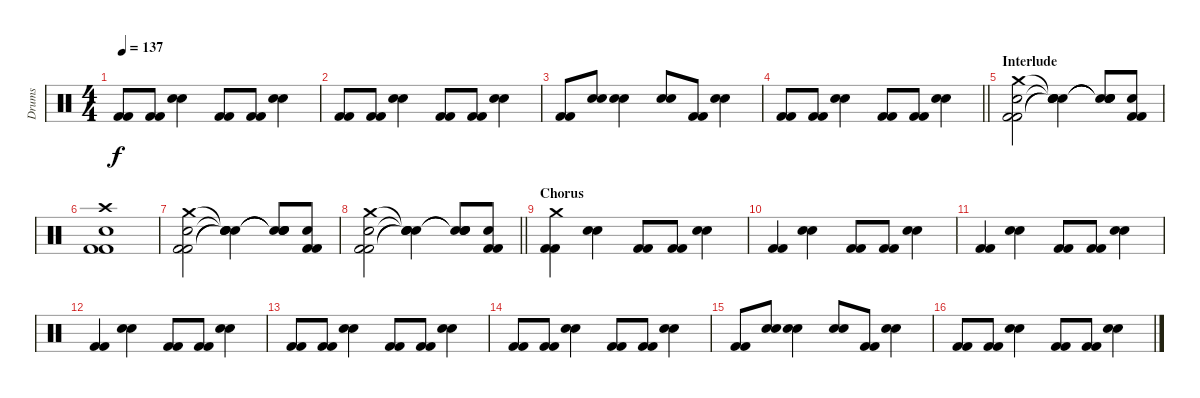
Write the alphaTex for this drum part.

\track ("Drums" "Drums") {instrument percussion}
\staff {score}
\articulation defaults
\ts (4 4)
\tempo 137
\clef neutral
\ks c
("Kick (hit) 2" "Kick (hit) 2").8{dy f} ("Kick (hit) 2" "Kick (hit) 2").8 ("Electric Snare (hit)" "Electric Snare (hit)").4 ("Kick (hit) 2" "Kick (hit) 2").8 ("Kick (hit) 2" "Kick (hit) 2").8 ("Electric Snare (hit)" "Electric Snare (hit)").4 |
("Kick (hit) 2" "Kick (hit) 2").8 ("Kick (hit) 2" "Kick (hit) 2").8 ("Electric Snare (hit)" "Electric Snare (hit)").4 ("Kick (hit) 2" "Kick (hit) 2").8 ("Kick (hit) 2" "Kick (hit) 2").8 ("Electric Snare (hit)" "Electric Snare (hit)").4 |
("Kick (hit) 2" "Kick (hit) 2").8 ("Electric Snare (hit)" "Electric Snare (hit)").8 ("Electric Snare (hit)" "Electric Snare (hit)").4 ("Electric Snare (hit)" "Electric Snare (hit)").8 ("Kick (hit) 2" "Kick (hit) 2").8 ("Electric Snare (hit)" "Electric Snare (hit)").4 |
\barLineRight lightlight
("Kick (hit) 2" "Kick (hit) 2").8 ("Kick (hit) 2" "Kick (hit) 2").8 ("Electric Snare (hit)" "Electric Snare (hit)").4 ("Kick (hit) 2" "Kick (hit) 2").8 ("Kick (hit) 2" "Kick (hit) 2").8 ("Electric Snare (hit)" "Electric Snare (hit)").4 |
\section ("" "Interlude")
("Kick (hit) 2" "Kick (hit) 2" "Electric Snare (hit)" "Crash medium (hit)").2 ("Snare (hit)"{t} "Snare (hit)"{t} "Snare (hit)"{t} "Snare (hit)"{t}).4 ("Snare (hit)"{t} "Snare (hit)"{t} "Snare (hit)"{t} "Snare (hit)"{t}).8 ("Kick (hit) 2" "Kick (hit) 2" "Electric Snare (hit)").8 |
("Kick (hit) 2" "Kick (hit) 2" "Electric Snare (hit)" "Crash high (hit)").1 |
("Kick (hit) 2" "Kick (hit) 2" "Electric Snare (hit)" "Crash medium (hit)").2 ("Snare (hit)"{t} "Snare (hit)"{t} "Snare (hit)"{t} "Snare (hit)"{t}).4 ("Snare (hit)"{t} "Snare (hit)"{t} "Snare (hit)"{t} "Snare (hit)"{t}).8 ("Kick (hit) 2" "Kick (hit) 2" "Electric Snare (hit)").8 |
\barLineRight lightlight
("Kick (hit) 2" "Kick (hit) 2" "Electric Snare (hit)" "Crash medium (hit)").2 ("Snare (hit)"{t} "Snare (hit)"{t} "Snare (hit)"{t} "Snare (hit)"{t}).4 ("Electric Snare (hit)" "Snare (hit)"{t} "Snare (hit)"{t} "Snare (hit)"{t}).8 ("Kick (hit) 2" "Kick (hit) 2" "Electric Snare (hit)").8 |
\section ("" "Chorus")
("Kick (hit) 2" "Kick (hit) 2" "Crash medium (hit)").4 ("Electric Snare (hit)" "Electric Snare (hit)").4 ("Kick (hit) 2" "Kick (hit) 2").8 ("Kick (hit) 2" "Kick (hit) 2").8 ("Electric Snare (hit)" "Electric Snare (hit)").4 |
("Kick (hit) 2" "Kick (hit) 2").4 ("Electric Snare (hit)" "Electric Snare (hit)").4 ("Kick (hit) 2" "Kick (hit) 2").8 ("Kick (hit) 2" "Kick (hit) 2").8 ("Electric Snare (hit)" "Electric Snare (hit)").4 |
("Kick (hit) 2" "Kick (hit) 2").4 ("Electric Snare (hit)" "Electric Snare (hit)").4 ("Kick (hit) 2" "Kick (hit) 2").8 ("Kick (hit) 2" "Kick (hit) 2").8 ("Electric Snare (hit)" "Electric Snare (hit)").4 |
("Kick (hit) 2" "Kick (hit) 2").4 ("Electric Snare (hit)" "Electric Snare (hit)").4 ("Kick (hit) 2" "Kick (hit) 2").8 ("Kick (hit) 2" "Kick (hit) 2").8 ("Electric Snare (hit)" "Electric Snare (hit)").4 |
("Kick (hit) 2" "Kick (hit) 2").8 ("Kick (hit) 2" "Kick (hit) 2").8 ("Electric Snare (hit)" "Electric Snare (hit)").4 ("Kick (hit) 2" "Kick (hit) 2").8 ("Kick (hit) 2" "Kick (hit) 2").8 ("Electric Snare (hit)" "Electric Snare (hit)").4 |
("Kick (hit) 2" "Kick (hit) 2").8 ("Kick (hit) 2" "Kick (hit) 2").8 ("Electric Snare (hit)" "Electric Snare (hit)").4 ("Kick (hit) 2" "Kick (hit) 2").8 ("Kick (hit) 2" "Kick (hit) 2").8 ("Electric Snare (hit)" "Electric Snare (hit)").4 |
("Kick (hit) 2" "Kick (hit) 2").8 ("Electric Snare (hit)" "Electric Snare (hit)").8 ("Electric Snare (hit)" "Electric Snare (hit)").4 ("Electric Snare (hit)" "Electric Snare (hit)").8 ("Kick (hit) 2" "Kick (hit) 2").8 ("Electric Snare (hit)" "Electric Snare (hit)").4 |
("Kick (hit) 2" "Kick (hit) 2").8 ("Kick (hit) 2" "Kick (hit) 2").8 ("Electric Snare (hit)" "Electric Snare (hit)").4 ("Kick (hit) 2" "Kick (hit) 2").8 ("Kick (hit) 2" "Kick (hit) 2").8 ("Electric Snare (hit)" "Electric Snare (hit)").4
